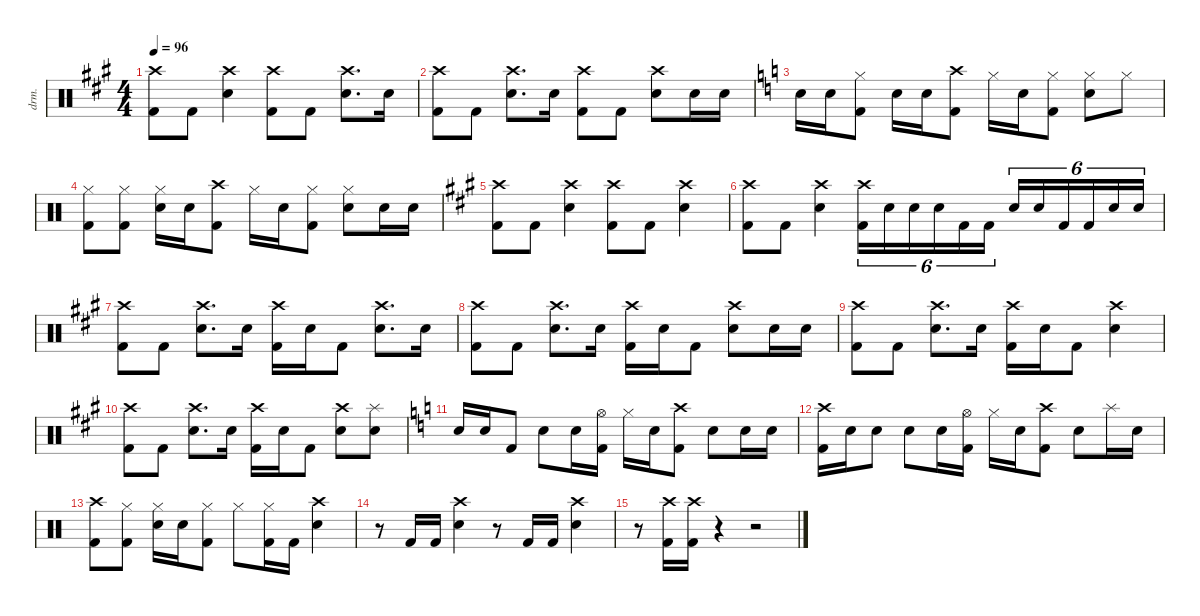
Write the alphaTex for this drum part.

\defaultSystemsLayout 4
\hideDynamics
\bracketExtendMode nobrackets
\track ("Percussion" "drm.") {instrument percussion}
\staff {score}
\articulation defaults
\ts (4 4)
\tempo 96
\clef neutral
\ks a
("Crash high (hit)"{acc forcenatural} "Kick (hit) 2"{acc forcenatural}).8{dy f} "Kick (hit) 2"{acc forcenatural}.8 ("Crash high (hit)"{acc forcenatural} "Snare (hit) 2"{acc forcenatural}).4 ("Crash high (hit)"{acc forcenatural} "Kick (hit) 2"{acc forcenatural}).8 "Kick (hit) 2"{acc forcenatural}.8 ("Crash high (hit)"{acc forcenatural} "Snare (hit) 2"{acc forcenatural}).8{d} "Snare (hit) 2"{acc forcenatural}.16 |
("Crash high (hit)"{acc forcenatural} "Kick (hit) 2"{acc forcenatural}).8 "Kick (hit) 2"{acc forcenatural}.8 ("Crash high (hit)"{acc forcenatural} "Snare (hit) 2"{acc forcenatural}).8{d} "Snare (hit) 2"{acc forcenatural}.16 ("Crash high (hit)"{acc forcenatural} "Kick (hit) 2"{acc forcenatural}).8 "Kick (hit) 2"{acc forcenatural}.8 ("Crash high (hit)"{acc forcenatural} "Snare (hit) 2"{acc forcenatural}).8 "Snare (hit) 2"{acc forcenatural}.16 "Snare (hit) 2"{acc forcenatural}.16 |
\ks c "Snare (hit) 2".16 "Snare (hit) 2".16
("Hi-Hat (closed)" "Kick (hit) 2").8 "Snare (hit) 2".16 "Snare (hit) 2".16 ("Crash high (hit)" "Kick (hit) 2").8 "Hi-Hat (closed)".16 "Snare (hit) 2".16 ("Hi-Hat (closed)" "Kick (hit) 2").8 ("Hi-Hat (closed)" "Snare (hit) 2").8 "Hi-Hat (closed)".8 |
("Hi-Hat (closed)" "Kick (hit) 2").8 ("Hi-Hat (closed)" "Kick (hit) 2").8 ("Hi-Hat (closed)" "Snare (hit) 2").16 "Snare (hit) 2".16 ("Crash high (hit)" "Kick (hit) 2").8 "Hi-Hat (closed)".16 "Snare (hit) 2".16 ("Hi-Hat (closed)" "Kick (hit) 2").8 ("Hi-Hat (closed)" "Snare (hit) 2").8 "Snare (hit) 2".16 "Snare (hit) 2".16 |
\ks a
("Crash high (hit)"{acc forcenatural} "Kick (hit) 2"{acc forcenatural}).8 "Kick (hit) 2"{acc forcenatural}.8 ("Crash high (hit)"{acc forcenatural} "Snare (hit) 2"{acc forcenatural}).4 ("Crash high (hit)"{acc forcenatural} "Kick (hit) 2"{acc forcenatural}).8 "Kick (hit) 2"{acc forcenatural}.8 ("Crash high (hit)"{acc forcenatural} "Snare (hit) 2"{acc forcenatural}).4 |
("Crash high (hit)"{acc forcenatural} "Kick (hit) 2"{acc forcenatural}).8 "Kick (hit) 2"{acc forcenatural}.8 ("Crash high (hit)"{acc forcenatural} "Snare (hit) 2"{acc forcenatural}).4 ("Crash high (hit)"{acc forcenatural} "Kick (hit) 2"{acc forcenatural}).16{tu (6 4)} "Snare (hit) 2"{acc forcenatural}.16{tu (6 4)} "Snare (hit) 2"{acc forcenatural}.16{tu (6 4)} "Snare (hit) 2"{acc forcenatural}.16{tu (6 4)} "Kick (hit) 2"{acc forcenatural}.16{tu (6 4)} "Kick (hit) 2"{acc forcenatural}.16{tu (6 4)} "Snare (hit) 2"{acc forcenatural}.16{tu (6 4)} "Snare (hit) 2"{acc forcenatural}.16{tu (6 4)} "Kick (hit) 2"{acc forcenatural}.16{tu (6 4)} "Kick (hit) 2"{acc forcenatural}.16{tu (6 4)} "Snare (hit) 2"{acc forcenatural}.16{tu (6 4)} "Snare (hit) 2"{acc forcenatural}.16{tu (6 4)} |
("Crash high (hit)"{acc forcenatural} "Kick (hit) 2"{acc forcenatural}).8 "Kick (hit) 2"{acc forcenatural}.8 ("Crash high (hit)"{acc forcenatural} "Snare (hit) 2"{acc forcenatural}).8{d} "Snare (hit) 2"{acc forcenatural}.16 ("Crash high (hit)"{acc forcenatural} "Kick (hit) 2"{acc forcenatural}).16 "Snare (hit) 2"{acc forcenatural}.16 "Kick (hit) 2"{acc forcenatural}.8 ("Crash high (hit)"{acc forcenatural} "Snare (hit) 2"{acc forcenatural}).8{d} "Snare (hit) 2"{acc forcenatural}.16 |
("Crash high (hit)"{acc forcenatural} "Kick (hit) 2"{acc forcenatural}).8 "Kick (hit) 2"{acc forcenatural}.8 ("Crash high (hit)"{acc forcenatural} "Snare (hit) 2"{acc forcenatural}).8{d} "Snare (hit) 2"{acc forcenatural}.16 ("Crash high (hit)"{acc forcenatural} "Kick (hit) 2"{acc forcenatural}).16 "Snare (hit) 2"{acc forcenatural}.16 "Kick (hit) 2"{acc forcenatural}.8 ("Crash high (hit)"{acc forcenatural} "Snare (hit) 2"{acc forcenatural}).8 "Snare (hit) 2"{acc forcenatural}.16 "Snare (hit) 2"{acc forcenatural}.16 |
("Crash high (hit)"{acc forcenatural} "Kick (hit) 2"{acc forcenatural}).8 "Kick (hit) 2"{acc forcenatural}.8 ("Crash high (hit)"{acc forcenatural} "Snare (hit) 2"{acc forcenatural}).8{d} "Snare (hit) 2"{acc forcenatural}.16 ("Crash high (hit)"{acc forcenatural} "Kick (hit) 2"{acc forcenatural}).16 "Snare (hit) 2"{acc forcenatural}.16 "Kick (hit) 2"{acc forcenatural}.8 ("Crash high (hit)"{acc forcenatural} "Snare (hit) 2"{acc forcenatural}).4 |
("Crash high (hit)"{acc forcenatural} "Kick (hit) 2"{acc forcenatural}).8 "Kick (hit) 2"{acc forcenatural}.8 ("Crash high (hit)"{acc forcenatural} "Snare (hit) 2"{acc forcenatural}).8{d} "Snare (hit) 2"{acc forcenatural}.16 ("Crash high (hit)"{acc forcenatural} "Kick (hit) 2"{acc forcenatural}).16 "Snare (hit) 2"{acc forcenatural}.16 "Kick (hit) 2"{acc forcenatural}.8 ("Crash high (hit)"{acc forcenatural} "Snare (hit) 2"{acc forcenatural}).8 ("Splash (hit)"{acc forcenatural} "Snare (hit) 2"{acc forcenatural}).8{dy mf} |
\ks c "Snare (hit) 2".16{dy f} "Snare (hit) 2".16 "Kick (hit) 2".8 "Snare (hit) 2".8 "Snare (hit) 2".16
("Hi-Hat (open)" "Kick (hit) 2").16 "Hi-Hat (closed)".16 "Snare (hit) 2".16 ("Crash high (hit)" "Kick (hit) 2").8 "Snare (hit) 2".8 "Snare (hit) 2".16 "Snare (hit) 2".16 |
("Crash high (hit)" "Kick (hit) 2").16 "Snare (hit) 2".16 "Snare (hit) 2".8 "Snare (hit) 2".8 "Snare (hit) 2".16 ("Hi-Hat (open)" "Kick (hit) 2").16 "Hi-Hat (closed)".16 "Snare (hit) 2".16 ("Crash high (hit)" "Kick (hit) 2").8 "Snare (hit) 2".8 "Splash (hit)".16{dy mf} "Snare (hit) 2".16{dy f} |
("Crash high (hit)" "Kick (hit) 2").8 ("Hi-Hat (closed)" "Kick (hit) 2").8 ("Hi-Hat (closed)" "Snare (hit) 2").16 "Snare (hit) 2".16 ("Hi-Hat (closed)" "Kick (hit) 2").8 "Hi-Hat (closed)".8 ("Hi-Hat (closed)" "Kick (hit) 2").16 "Kick (hit) 2".16 ("Crash high (hit)" "Snare (hit) 2").4 |
r.8 "Kick (hit) 2".16 "Kick (hit) 2".16 ("Crash high (hit)" "Snare (hit) 2").4 r.8 "Kick (hit) 2".16 "Kick (hit) 2".16 ("Crash high (hit)" "Snare (hit) 2").4 |
r.8 ("Crash high (hit)" "Kick (hit) 2").16 ("Crash high (hit)" "Kick (hit) 2").16 r.4 r.2
